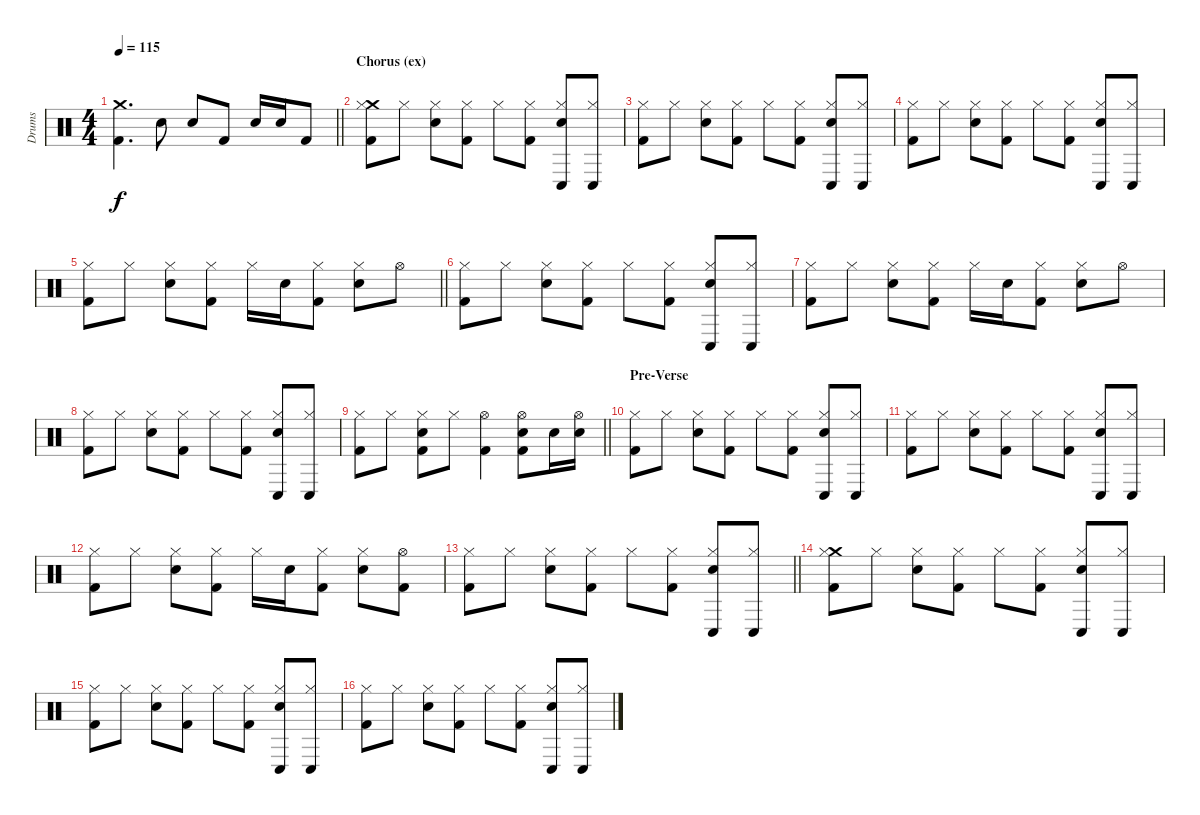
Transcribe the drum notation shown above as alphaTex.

\track ("Drums" "Drums") {instrument percussion}
\staff {score}
\articulation defaults
\ts (4 4)
\tempo 115
\clef neutral
\barLineRight lightlight
\ks c
("Crash medium (hit)" "Kick (hit) 2").4{d dy f} "Electric Snare (hit)".8 "Electric Snare (hit)".8 "Kick (hit) 2".8 "Electric Snare (hit)".16 "Electric Snare (hit)".16 "Kick (hit) 2".8 |
\section ("" "Chorus (ex)")
("Crash medium (hit)" "Kick (hit) 2" "Hi-Hat (closed)").8 "Hi-Hat (closed)".8 ("Electric Snare (hit)" "Hi-Hat (closed)").8 ("Kick (hit) 2" "Hi-Hat (closed)").8 "Hi-Hat (closed)".8 ("Kick (hit) 2" "Hi-Hat (closed)").8 ("Conga low (hit)" "Electric Snare (hit)" "Hi-Hat (closed)").8 ("Conga low (hit)" "Hi-Hat (closed)").8 |
("Kick (hit) 2" "Hi-Hat (closed)").8 "Hi-Hat (closed)".8 ("Electric Snare (hit)" "Hi-Hat (closed)").8 ("Kick (hit) 2" "Hi-Hat (closed)").8 "Hi-Hat (closed)".8 ("Kick (hit) 2" "Hi-Hat (closed)").8 ("Conga low (hit)" "Electric Snare (hit)" "Hi-Hat (closed)").8 ("Conga low (hit)" "Hi-Hat (closed)").8 |
("Kick (hit) 2" "Hi-Hat (closed)").8 "Hi-Hat (closed)".8 ("Electric Snare (hit)" "Hi-Hat (closed)").8 ("Kick (hit) 2" "Hi-Hat (closed)").8 "Hi-Hat (closed)".8 ("Kick (hit) 2" "Hi-Hat (closed)").8 ("Conga low (hit)" "Electric Snare (hit)" "Hi-Hat (closed)").8 ("Conga low (hit)" "Hi-Hat (closed)").8 |
\barLineRight lightlight
("Kick (hit) 2" "Hi-Hat (closed)").8 "Hi-Hat (closed)".8 ("Electric Snare (hit)" "Hi-Hat (closed)").8 ("Kick (hit) 2" "Hi-Hat (closed)").8 "Hi-Hat (closed)".16 "Electric Snare (hit)".16 ("Kick (hit) 2" "Hi-Hat (closed)").8 ("Electric Snare (hit)" "Hi-Hat (closed)").8 "Hi-Hat (open)".8 |
("Kick (hit) 2" "Hi-Hat (closed)").8 "Hi-Hat (closed)".8 ("Electric Snare (hit)" "Hi-Hat (closed)").8 ("Kick (hit) 2" "Hi-Hat (closed)").8 "Hi-Hat (closed)".8 ("Kick (hit) 2" "Hi-Hat (closed)").8 ("Conga low (hit)" "Electric Snare (hit)" "Hi-Hat (closed)").8 ("Conga low (hit)" "Hi-Hat (closed)").8 |
("Kick (hit) 2" "Hi-Hat (closed)").8 "Hi-Hat (closed)".8 ("Electric Snare (hit)" "Hi-Hat (closed)").8 ("Kick (hit) 2" "Hi-Hat (closed)").8 "Hi-Hat (closed)".16 "Electric Snare (hit)".16 ("Kick (hit) 2" "Hi-Hat (closed)").8 ("Electric Snare (hit)" "Hi-Hat (closed)").8 "Hi-Hat (open)".8 |
("Kick (hit) 2" "Hi-Hat (closed)").8 "Hi-Hat (closed)".8 ("Electric Snare (hit)" "Hi-Hat (closed)").8 ("Kick (hit) 2" "Hi-Hat (closed)").8 "Hi-Hat (closed)".8 ("Kick (hit) 2" "Hi-Hat (closed)").8 ("Conga low (hit)" "Electric Snare (hit)" "Hi-Hat (closed)").8 ("Conga low (hit)" "Hi-Hat (closed)").8 |
\barLineRight lightlight
("Kick (hit) 2" "Hi-Hat (closed)").8 "Hi-Hat (closed)".8 ("Kick (hit) 2" "Electric Snare (hit)" "Hi-Hat (closed)").8 "Hi-Hat (closed)".8 ("Kick (hit) 2" "Hi-Hat (open)").4 ("Kick (hit) 2" "Electric Snare (hit)" "Hi-Hat (open)").8 "Electric Snare (hit)".16 ("Electric Snare (hit)" "Hi-Hat (open)").16 |
\section ("" "Pre-Verse")
("Kick (hit) 2" "Hi-Hat (closed)").8 "Hi-Hat (closed)".8 ("Electric Snare (hit)" "Hi-Hat (closed)").8 ("Kick (hit) 2" "Hi-Hat (closed)").8 "Hi-Hat (closed)".8 ("Kick (hit) 2" "Hi-Hat (closed)").8 ("Conga low (hit)" "Electric Snare (hit)" "Hi-Hat (closed)").8 ("Conga low (hit)" "Hi-Hat (closed)").8 |
("Kick (hit) 2" "Hi-Hat (closed)").8 "Hi-Hat (closed)".8 ("Electric Snare (hit)" "Hi-Hat (closed)").8 ("Kick (hit) 2" "Hi-Hat (closed)").8 "Hi-Hat (closed)".8 ("Kick (hit) 2" "Hi-Hat (closed)").8 ("Conga low (hit)" "Electric Snare (hit)" "Hi-Hat (closed)").8 ("Conga low (hit)" "Hi-Hat (closed)").8 |
("Kick (hit) 2" "Hi-Hat (closed)").8 "Hi-Hat (closed)".8 ("Electric Snare (hit)" "Hi-Hat (closed)").8 ("Kick (hit) 2" "Hi-Hat (closed)").8 "Hi-Hat (closed)".16 "Electric Snare (hit)".16 ("Kick (hit) 2" "Hi-Hat (closed)").8 ("Electric Snare (hit)" "Hi-Hat (closed)").8 ("Kick (hit) 2" "Hi-Hat (open)").8 |
\barLineRight lightlight
("Kick (hit) 2" "Hi-Hat (closed)").8 "Hi-Hat (closed)".8 ("Electric Snare (hit)" "Hi-Hat (closed)").8 ("Kick (hit) 2" "Hi-Hat (closed)").8 "Hi-Hat (closed)".8 ("Kick (hit) 2" "Hi-Hat (closed)").8 ("Conga low (hit)" "Electric Snare (hit)" "Hi-Hat (closed)").8 ("Conga low (hit)" "Hi-Hat (closed)").8 |
("Crash medium (hit)" "Kick (hit) 2" "Hi-Hat (closed)").8 "Hi-Hat (closed)".8 ("Electric Snare (hit)" "Hi-Hat (closed)").8 ("Kick (hit) 2" "Hi-Hat (closed)").8 "Hi-Hat (closed)".8 ("Kick (hit) 2" "Hi-Hat (closed)").8 ("Conga low (hit)" "Electric Snare (hit)" "Hi-Hat (closed)").8 ("Conga low (hit)" "Hi-Hat (closed)").8 |
("Kick (hit) 2" "Hi-Hat (closed)").8 "Hi-Hat (closed)".8 ("Electric Snare (hit)" "Hi-Hat (closed)").8 ("Kick (hit) 2" "Hi-Hat (closed)").8 "Hi-Hat (closed)".8 ("Kick (hit) 2" "Hi-Hat (closed)").8 ("Conga low (hit)" "Electric Snare (hit)" "Hi-Hat (closed)").8 ("Conga low (hit)" "Hi-Hat (closed)").8 |
("Kick (hit) 2" "Hi-Hat (closed)").8 "Hi-Hat (closed)".8 ("Electric Snare (hit)" "Hi-Hat (closed)").8 ("Kick (hit) 2" "Hi-Hat (closed)").8 "Hi-Hat (closed)".8 ("Kick (hit) 2" "Hi-Hat (closed)").8 ("Conga low (hit)" "Electric Snare (hit)" "Hi-Hat (closed)").8 ("Conga low (hit)" "Hi-Hat (closed)").8
